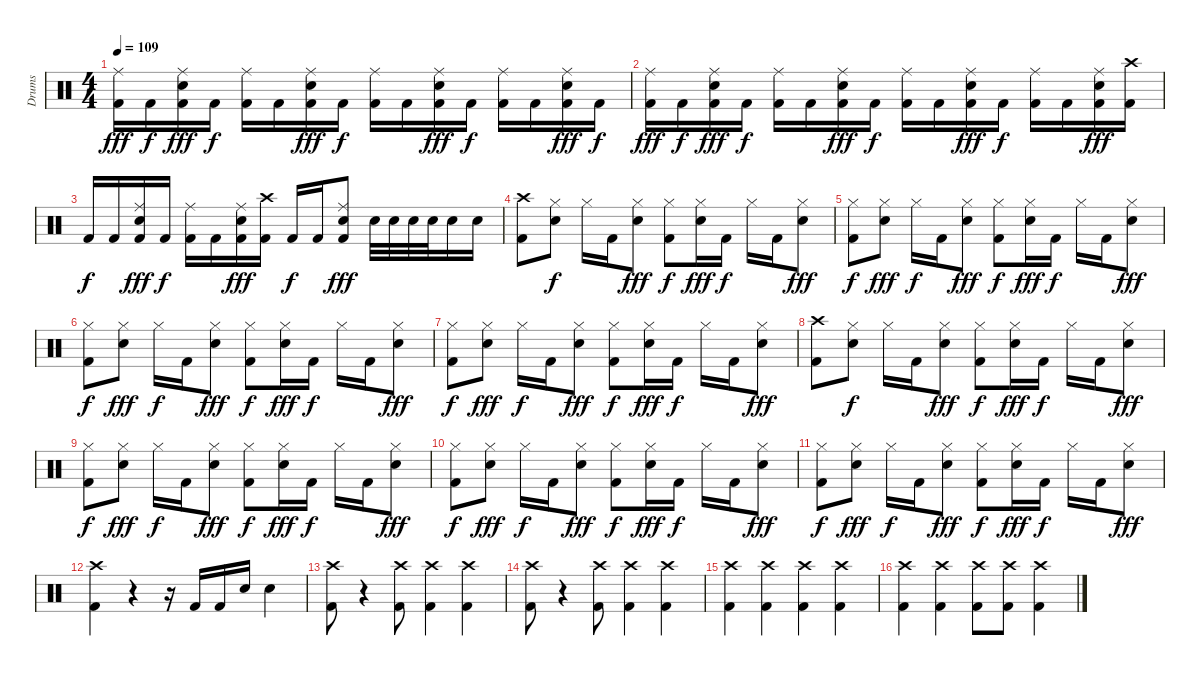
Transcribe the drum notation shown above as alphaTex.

\track ("Drums" "Drums") {instrument percussion}
\staff {score}
\articulation defaults
\ts (4 4)
\tempo 109
\clef neutral
\ks c
("Kick (hit) 2" "Ride (middle)").16{dy fff} "Kick (hit) 2".16{dy f} ("Kick (hit) 2" "Ride (middle)" "Snare (hit) 2").16{dy fff} "Kick (hit) 2".16{dy f} ("Kick (hit) 2" "Ride (middle)").16 "Kick (hit) 2".16 ("Snare (hit) 2" "Kick (hit) 2" "Ride (middle)").16{dy fff} "Kick (hit) 2".16{dy f} ("Ride (middle)" "Kick (hit) 2").16 "Kick (hit) 2".16 ("Kick (hit) 2" "Snare (hit) 2" "Ride (middle)").16{dy fff} "Kick (hit) 2".16{dy f} ("Kick (hit) 2" "Ride (middle)").16 "Kick (hit) 2".16 ("Ride (middle)" "Kick (hit) 2" "Snare (hit) 2").16{dy fff} "Kick (hit) 2".16{dy f} |
("Kick (hit) 2" "Ride (middle)").16{dy fff} "Kick (hit) 2".16{dy f} ("Kick (hit) 2" "Ride (middle)" "Snare (hit) 2").16{dy fff} "Kick (hit) 2".16{dy f} ("Kick (hit) 2" "Ride (middle)").16 "Kick (hit) 2".16 ("Snare (hit) 2" "Kick (hit) 2" "Ride (middle)").16{dy fff} "Kick (hit) 2".16{dy f} ("Ride (middle)" "Kick (hit) 2").16 "Kick (hit) 2".16 ("Kick (hit) 2" "Snare (hit) 2" "Ride (middle)").16{dy fff} "Kick (hit) 2".16{dy f} ("Kick (hit) 2" "Ride (middle)").16 "Kick (hit) 2".16 ("Snare (hit) 2" "Ride (middle)" "Kick (hit) 2").16{dy fff} ("Crash high (hit)" "Kick (hit) 2").16 |
"Kick (hit) 2".16{dy f} "Kick (hit) 2".16 ("Kick (hit) 2" "Snare (hit) 2" "Ride (middle)").16{dy fff} "Kick (hit) 2".16{dy f} ("Kick (hit) 2" "Ride (middle)").16 "Kick (hit) 2".16 ("Snare (hit) 2" "Ride (middle)" "Kick (hit) 2").16{dy fff} ("Crash high (hit)" "Kick (hit) 2").16 "Kick (hit) 2".16{dy f} "Kick (hit) 2".16 ("Ride (middle)" "Kick (hit) 2" "Snare (hit) 2").8{dy fff} "Snare (hit) 2".32 "Snare (hit) 2".32 "Snare (hit) 2".32 "Snare (hit) 2".32 "Snare (hit) 2".16 "Snare (hit) 2".16 |
("Kick (hit) 2" "Crash high (hit)").8 ("Snare (hit) 2" "Hi-Hat (closed)").8{dy f} "Hi-Hat (closed)".16 "Kick (hit) 2".16 ("Hi-Hat (closed)" "Snare (hit) 2").8{dy fff} ("Hi-Hat (closed)" "Kick (hit) 2").8{dy f} ("Hi-Hat (closed)" "Snare (hit) 2").16{dy fff} "Kick (hit) 2".16{dy f} "Hi-Hat (closed)".16 "Kick (hit) 2".16 ("Hi-Hat (closed)" "Snare (hit) 2").8{dy fff} |
("Hi-Hat (closed)" "Kick (hit) 2").8{dy f} ("Hi-Hat (closed)" "Snare (hit) 2").8{dy fff} "Hi-Hat (closed)".16{dy f} "Kick (hit) 2".16 ("Hi-Hat (closed)" "Snare (hit) 2").8{dy fff} ("Kick (hit) 2" "Hi-Hat (closed)").8{dy f} ("Hi-Hat (closed)" "Snare (hit) 2").16{dy fff} "Kick (hit) 2".16{dy f} "Hi-Hat (closed)".16 "Kick (hit) 2".16 ("Hi-Hat (closed)" "Snare (hit) 2").8{dy fff} |
("Hi-Hat (closed)" "Kick (hit) 2").8{dy f} ("Hi-Hat (closed)" "Snare (hit) 2").8{dy fff} "Hi-Hat (closed)".16{dy f} "Kick (hit) 2".16 ("Hi-Hat (closed)" "Snare (hit) 2").8{dy fff} ("Kick (hit) 2" "Hi-Hat (closed)").8{dy f} ("Hi-Hat (closed)" "Snare (hit) 2").16{dy fff} "Kick (hit) 2".16{dy f} "Hi-Hat (closed)".16 "Kick (hit) 2".16 ("Hi-Hat (closed)" "Snare (hit) 2").8{dy fff} |
("Hi-Hat (closed)" "Kick (hit) 2").8{dy f} ("Hi-Hat (closed)" "Snare (hit) 2").8{dy fff} "Hi-Hat (closed)".16{dy f} "Kick (hit) 2".16 ("Hi-Hat (closed)" "Snare (hit) 2").8{dy fff} ("Hi-Hat (closed)" "Kick (hit) 2").8{dy f} ("Snare (hit) 2" "Hi-Hat (closed)").16{dy fff} "Kick (hit) 2".16{dy f} "Hi-Hat (closed)".16 "Kick (hit) 2".16 ("Hi-Hat (closed)" "Snare (hit) 2").8{dy fff} |
("Kick (hit) 2" "Crash high (hit)").8 ("Snare (hit) 2" "Hi-Hat (closed)").8{dy f} "Hi-Hat (closed)".16 "Kick (hit) 2".16 ("Hi-Hat (closed)" "Snare (hit) 2").8{dy fff} ("Hi-Hat (closed)" "Kick (hit) 2").8{dy f} ("Hi-Hat (closed)" "Snare (hit) 2").16{dy fff} "Kick (hit) 2".16{dy f} "Hi-Hat (closed)".16 "Kick (hit) 2".16 ("Hi-Hat (closed)" "Snare (hit) 2").8{dy fff} |
("Hi-Hat (closed)" "Kick (hit) 2").8{dy f} ("Hi-Hat (closed)" "Snare (hit) 2").8{dy fff} "Hi-Hat (closed)".16{dy f} "Kick (hit) 2".16 ("Hi-Hat (closed)" "Snare (hit) 2").8{dy fff} ("Kick (hit) 2" "Hi-Hat (closed)").8{dy f} ("Hi-Hat (closed)" "Snare (hit) 2").16{dy fff} "Kick (hit) 2".16{dy f} "Hi-Hat (closed)".16 "Kick (hit) 2".16 ("Hi-Hat (closed)" "Snare (hit) 2").8{dy fff} |
("Hi-Hat (closed)" "Kick (hit) 2").8{dy f} ("Hi-Hat (closed)" "Snare (hit) 2").8{dy fff} "Hi-Hat (closed)".16{dy f} "Kick (hit) 2".16 ("Hi-Hat (closed)" "Snare (hit) 2").8{dy fff} ("Kick (hit) 2" "Hi-Hat (closed)").8{dy f} ("Hi-Hat (closed)" "Snare (hit) 2").16{dy fff} "Kick (hit) 2".16{dy f} "Hi-Hat (closed)".16 "Kick (hit) 2".16 ("Hi-Hat (closed)" "Snare (hit) 2").8{dy fff} |
("Hi-Hat (closed)" "Kick (hit) 2").8{dy f} ("Hi-Hat (closed)" "Snare (hit) 2").8{dy fff} "Hi-Hat (closed)".16{dy f} "Kick (hit) 2".16 ("Hi-Hat (closed)" "Snare (hit) 2").8{dy fff} ("Hi-Hat (closed)" "Kick (hit) 2").8{dy f} ("Snare (hit) 2" "Hi-Hat (closed)").16{dy fff} "Kick (hit) 2".16{dy f} "Hi-Hat (closed)".16 "Kick (hit) 2".16 ("Hi-Hat (closed)" "Snare (hit) 2").8{dy fff} |
("Kick (hit) 2" "Crash high (hit)").4 r.4 r.16 "Kick (hit) 2".16 "Kick (hit) 2".16 "Snare (hit) 2".16 "Snare (hit) 2".4 |
("Kick (hit) 2" "Crash high (hit)").8 r.4 ("Crash high (hit)" "Kick (hit) 2").8 ("Kick (hit) 2" "Crash high (hit)").4 ("Kick (hit) 2" "Crash high (hit)").4 |
("Kick (hit) 2" "Crash high (hit)").8 r.4 ("Kick (hit) 2" "Crash high (hit)").8 ("Kick (hit) 2" "Crash high (hit)").4 ("Kick (hit) 2" "Crash high (hit)").4 |
("Kick (hit) 2" "Crash high (hit)").4 ("Kick (hit) 2" "Crash high (hit)").4 ("Kick (hit) 2" "Crash high (hit)").4 ("Kick (hit) 2" "Crash high (hit)").4 |
("Kick (hit) 2" "Crash high (hit)").4 ("Kick (hit) 2" "Crash high (hit)").4 ("Kick (hit) 2" "Crash high (hit)").8 ("Kick (hit) 2" "Crash high (hit)").8 ("Kick (hit) 2" "Crash high (hit)").4
